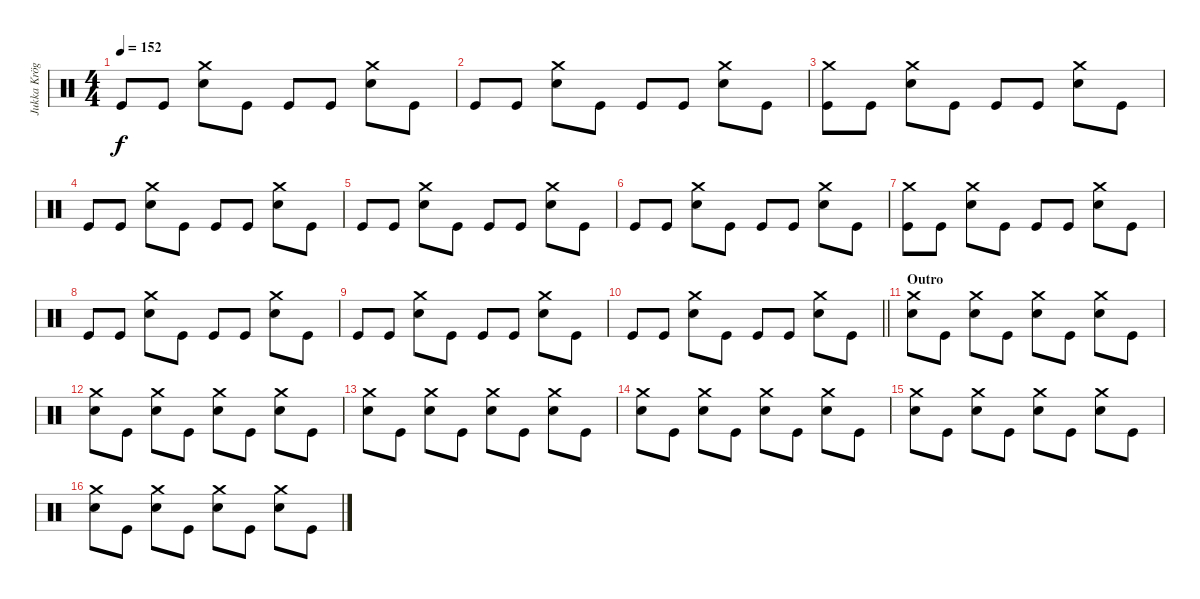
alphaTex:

\track ("Jukka Kröger" "Jukka Krög") {instrument percussion}
\staff {score}
\articulation defaults
\ts (4 4)
\tempo 152
\clef neutral
\ks aminor "Kick (hit)".8{dy f} "Kick (hit)".8
("Crash medium (hit)" "Snare (hit) 2").8 "Kick (hit)".8 "Kick (hit)".8 "Kick (hit)".8 ("Crash medium (hit)" "Snare (hit) 2").8 "Kick (hit)".8 |
"Kick (hit)".8 "Kick (hit)".8 ("Crash medium (hit)" "Snare (hit) 2").8 "Kick (hit)".8 "Kick (hit)".8 "Kick (hit)".8 ("Crash medium (hit)" "Snare (hit) 2").8 "Kick (hit)".8 |
("Crash medium (hit)" "Kick (hit)").8 "Kick (hit)".8 ("Crash medium (hit)" "Snare (hit) 2").8 "Kick (hit)".8 "Kick (hit)".8 "Kick (hit)".8 ("Crash medium (hit)" "Snare (hit) 2").8 "Kick (hit)".8 |
"Kick (hit)".8 "Kick (hit)".8 ("Crash medium (hit)" "Snare (hit) 2").8 "Kick (hit)".8 "Kick (hit)".8 "Kick (hit)".8 ("Crash medium (hit)" "Snare (hit) 2").8 "Kick (hit)".8 |
"Kick (hit)".8 "Kick (hit)".8 ("Crash medium (hit)" "Snare (hit) 2").8 "Kick (hit)".8 "Kick (hit)".8 "Kick (hit)".8 ("Crash medium (hit)" "Snare (hit) 2").8 "Kick (hit)".8 |
"Kick (hit)".8 "Kick (hit)".8 ("Crash medium (hit)" "Snare (hit) 2").8 "Kick (hit)".8 "Kick (hit)".8 "Kick (hit)".8 ("Crash medium (hit)" "Snare (hit) 2").8 "Kick (hit)".8 |
("Crash medium (hit)" "Kick (hit)").8 "Kick (hit)".8 ("Crash medium (hit)" "Snare (hit) 2").8 "Kick (hit)".8 "Kick (hit)".8 "Kick (hit)".8 ("Crash medium (hit)" "Snare (hit) 2").8 "Kick (hit)".8 |
"Kick (hit)".8 "Kick (hit)".8 ("Crash medium (hit)" "Snare (hit) 2").8 "Kick (hit)".8 "Kick (hit)".8 "Kick (hit)".8 ("Crash medium (hit)" "Snare (hit) 2").8 "Kick (hit)".8 |
"Kick (hit)".8 "Kick (hit)".8 ("Crash medium (hit)" "Snare (hit) 2").8 "Kick (hit)".8 "Kick (hit)".8 "Kick (hit)".8 ("Crash medium (hit)" "Snare (hit) 2").8 "Kick (hit)".8 |
\barLineRight lightlight "Kick (hit)".8 "Kick (hit)".8
("Crash medium (hit)" "Snare (hit) 2").8 "Kick (hit)".8 "Kick (hit)".8 "Kick (hit)".8 ("Crash medium (hit)" "Snare (hit) 2").8 "Kick (hit)".8 |
\section ("" "Outro")
("Crash medium (hit)" "Snare (hit) 2").8 "Kick (hit)".8 ("Crash medium (hit)" "Snare (hit) 2").8 "Kick (hit)".8 ("Crash medium (hit)" "Snare (hit) 2").8 "Kick (hit)".8 ("Crash medium (hit)" "Snare (hit) 2").8 "Kick (hit)".8 |
("Crash medium (hit)" "Snare (hit) 2").8 "Kick (hit)".8 ("Crash medium (hit)" "Snare (hit) 2").8 "Kick (hit)".8 ("Crash medium (hit)" "Snare (hit) 2").8 "Kick (hit)".8 ("Crash medium (hit)" "Snare (hit) 2").8 "Kick (hit)".8 |
("Crash medium (hit)" "Snare (hit) 2").8 "Kick (hit)".8 ("Crash medium (hit)" "Snare (hit) 2").8 "Kick (hit)".8 ("Crash medium (hit)" "Snare (hit) 2").8 "Kick (hit)".8 ("Crash medium (hit)" "Snare (hit) 2").8 "Kick (hit)".8 |
("Crash medium (hit)" "Snare (hit) 2").8 "Kick (hit)".8 ("Crash medium (hit)" "Snare (hit) 2").8 "Kick (hit)".8 ("Crash medium (hit)" "Snare (hit) 2").8 "Kick (hit)".8 ("Crash medium (hit)" "Snare (hit) 2").8 "Kick (hit)".8 |
("Crash medium (hit)" "Snare (hit) 2").8 "Kick (hit)".8 ("Crash medium (hit)" "Snare (hit) 2").8 "Kick (hit)".8 ("Crash medium (hit)" "Snare (hit) 2").8 "Kick (hit)".8 ("Crash medium (hit)" "Snare (hit) 2").8 "Kick (hit)".8 |
("Crash medium (hit)" "Snare (hit) 2").8 "Kick (hit)".8 ("Crash medium (hit)" "Snare (hit) 2").8 "Kick (hit)".8 ("Crash medium (hit)" "Snare (hit) 2").8 "Kick (hit)".8 ("Crash medium (hit)" "Snare (hit) 2").8 "Kick (hit)".8
